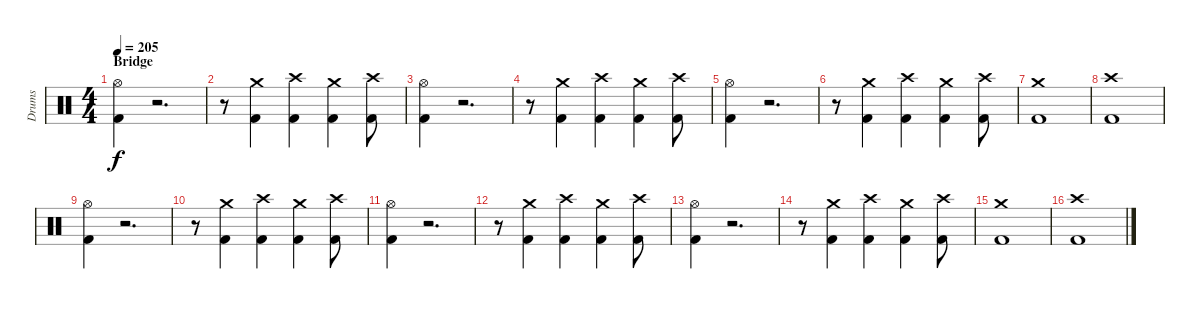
\track ("Drums" "Drums") {instrument percussion}
\staff {score}
\articulation defaults
\ts (4 4)
\section ("" "Bridge")
\tempo 205
\clef neutral
\ks c
("Hi-Hat (open)" "Kick (hit) 2").4{dy f} r.2{d} |
r.8 ("Crash medium (hit)" "Kick (hit) 2").4 ("Crash high (hit)" "Kick (hit) 2").4 ("Crash medium (hit)" "Kick (hit) 2").4 ("Crash high (hit)" "Kick (hit) 2").8 |
("Hi-Hat (open)" "Kick (hit) 2").4 r.2{d} |
r.8 ("Crash medium (hit)" "Kick (hit) 2").4 ("Crash high (hit)" "Kick (hit) 2").4 ("Crash medium (hit)" "Kick (hit) 2").4 ("Crash high (hit)" "Kick (hit) 2").8 |
("Hi-Hat (open)" "Kick (hit) 2").4 r.2{d} |
r.8 ("Crash medium (hit)" "Kick (hit) 2").4 ("Crash high (hit)" "Kick (hit) 2").4 ("Crash medium (hit)" "Kick (hit) 2").4 ("Crash high (hit)" "Kick (hit) 2").8 |
("Crash medium (hit)" "Kick (hit) 2").1 |
("Crash high (hit)" "Kick (hit) 2").1 |
("Hi-Hat (open)" "Kick (hit) 2").4 r.2{d} |
r.8 ("Crash medium (hit)" "Kick (hit) 2").4 ("Crash high (hit)" "Kick (hit) 2").4 ("Crash medium (hit)" "Kick (hit) 2").4 ("Crash high (hit)" "Kick (hit) 2").8 |
("Hi-Hat (open)" "Kick (hit) 2").4 r.2{d} |
r.8 ("Crash medium (hit)" "Kick (hit) 2").4 ("Crash high (hit)" "Kick (hit) 2").4 ("Crash medium (hit)" "Kick (hit) 2").4 ("Crash high (hit)" "Kick (hit) 2").8 |
("Hi-Hat (open)" "Kick (hit) 2").4 r.2{d} |
r.8 ("Crash medium (hit)" "Kick (hit) 2").4 ("Crash high (hit)" "Kick (hit) 2").4 ("Crash medium (hit)" "Kick (hit) 2").4 ("Crash high (hit)" "Kick (hit) 2").8 |
("Crash medium (hit)" "Kick (hit) 2").1 |
("Crash high (hit)" "Kick (hit) 2").1
